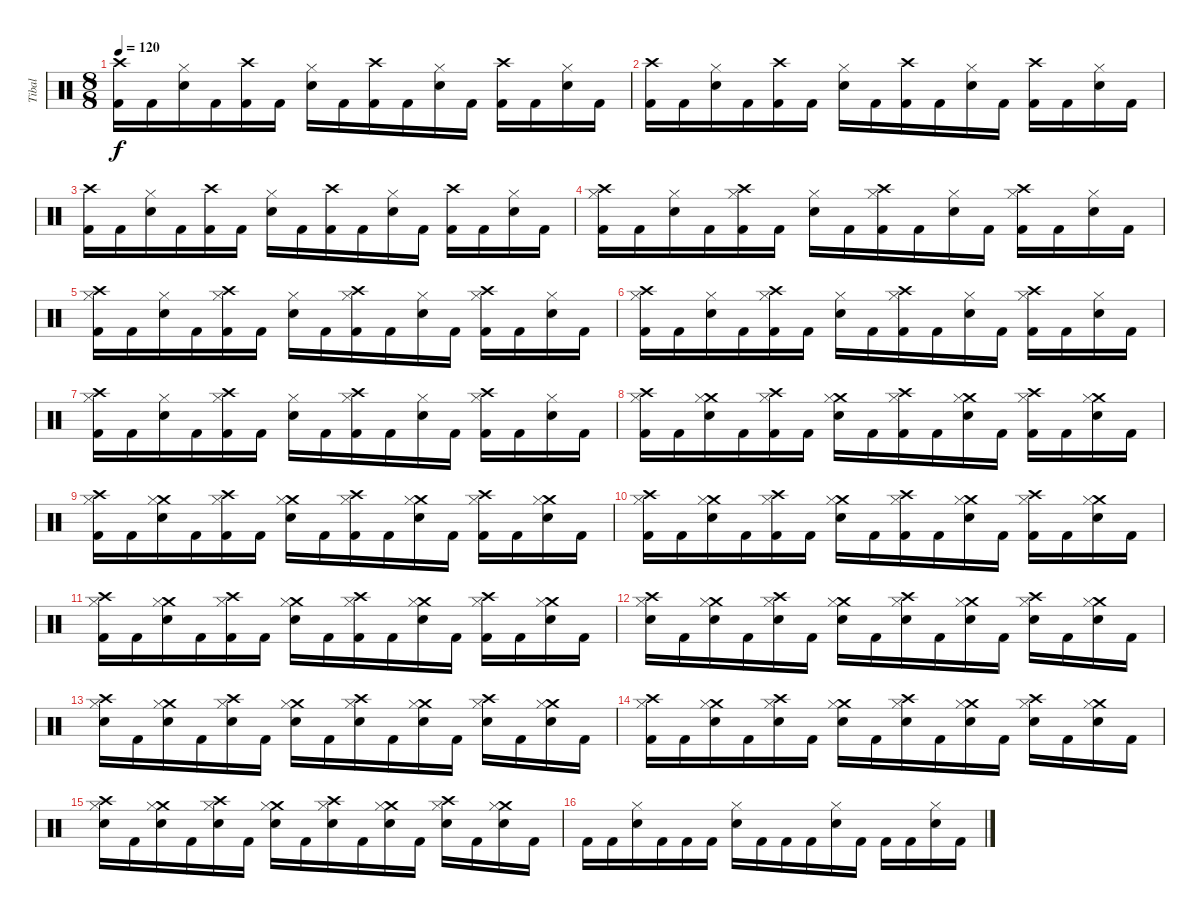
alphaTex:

\track ("Tibal" "Tibal") {instrument percussion}
\staff {score}
\articulation defaults
\ts (8 8)
\tempo 120
\clef neutral
\ks c
("Crash high (hit)" "Kick (hit) 2").16{dy f} "Kick (hit) 2".16 ("Snare (hit) 2" "Hi-Hat (closed)").16 "Kick (hit) 2".16 ("Crash high (hit)" "Kick (hit) 2").16 "Kick (hit) 2".16 ("Snare (hit) 2" "Hi-Hat (closed)").16 "Kick (hit) 2".16 ("Crash high (hit)" "Kick (hit) 2").16 "Kick (hit) 2".16 ("Snare (hit) 2" "Hi-Hat (closed)").16 "Kick (hit) 2".16 ("Crash high (hit)" "Kick (hit) 2").16 "Kick (hit) 2".16 ("Snare (hit) 2" "Hi-Hat (closed)").16 "Kick (hit) 2".16 |
("Crash high (hit)" "Kick (hit) 2").16 "Kick (hit) 2".16 ("Snare (hit) 2" "Hi-Hat (closed)").16 "Kick (hit) 2".16 ("Crash high (hit)" "Kick (hit) 2").16 "Kick (hit) 2".16 ("Snare (hit) 2" "Hi-Hat (closed)").16 "Kick (hit) 2".16 ("Crash high (hit)" "Kick (hit) 2").16 "Kick (hit) 2".16 ("Snare (hit) 2" "Hi-Hat (closed)").16 "Kick (hit) 2".16 ("Crash high (hit)" "Kick (hit) 2").16 "Kick (hit) 2".16 ("Snare (hit) 2" "Hi-Hat (closed)").16 "Kick (hit) 2".16 |
("Crash high (hit)" "Kick (hit) 2").16 "Kick (hit) 2".16 ("Snare (hit) 2" "Hi-Hat (closed)").16 "Kick (hit) 2".16 ("Crash high (hit)" "Kick (hit) 2").16 "Kick (hit) 2".16 ("Snare (hit) 2" "Hi-Hat (closed)").16 "Kick (hit) 2".16 ("Crash high (hit)" "Kick (hit) 2").16 "Kick (hit) 2".16 ("Snare (hit) 2" "Hi-Hat (closed)").16 "Kick (hit) 2".16 ("Crash high (hit)" "Kick (hit) 2").16 "Kick (hit) 2".16 ("Snare (hit) 2" "Hi-Hat (closed)").16 "Kick (hit) 2".16 |
("Crash high (hit)" "Kick (hit) 2" "Hi-Hat (closed)").16 "Kick (hit) 2".16 ("Snare (hit) 2" "Hi-Hat (closed)").16 "Kick (hit) 2".16 ("Crash high (hit)" "Kick (hit) 2" "Hi-Hat (closed)").16 "Kick (hit) 2".16 ("Snare (hit) 2" "Hi-Hat (closed)").16 "Kick (hit) 2".16 ("Crash high (hit)" "Kick (hit) 2" "Hi-Hat (closed)").16 "Kick (hit) 2".16 ("Snare (hit) 2" "Hi-Hat (closed)").16 "Kick (hit) 2".16 ("Crash high (hit)" "Kick (hit) 2" "Hi-Hat (closed)").16 "Kick (hit) 2".16 ("Snare (hit) 2" "Hi-Hat (closed)").16 "Kick (hit) 2".16 |
("Crash high (hit)" "Kick (hit) 2" "Hi-Hat (closed)").16 "Kick (hit) 2".16 ("Snare (hit) 2" "Hi-Hat (closed)").16 "Kick (hit) 2".16 ("Crash high (hit)" "Kick (hit) 2" "Hi-Hat (closed)").16 "Kick (hit) 2".16 ("Snare (hit) 2" "Hi-Hat (closed)").16 "Kick (hit) 2".16 ("Crash high (hit)" "Kick (hit) 2" "Hi-Hat (closed)").16 "Kick (hit) 2".16 ("Snare (hit) 2" "Hi-Hat (closed)").16 "Kick (hit) 2".16 ("Crash high (hit)" "Kick (hit) 2" "Hi-Hat (closed)").16 "Kick (hit) 2".16 ("Snare (hit) 2" "Hi-Hat (closed)").16 "Kick (hit) 2".16 |
("Crash high (hit)" "Kick (hit) 2" "Hi-Hat (closed)").16 "Kick (hit) 2".16 ("Snare (hit) 2" "Hi-Hat (closed)").16 "Kick (hit) 2".16 ("Crash high (hit)" "Kick (hit) 2" "Hi-Hat (closed)").16 "Kick (hit) 2".16 ("Snare (hit) 2" "Hi-Hat (closed)").16 "Kick (hit) 2".16 ("Crash high (hit)" "Kick (hit) 2" "Hi-Hat (closed)").16 "Kick (hit) 2".16 ("Snare (hit) 2" "Hi-Hat (closed)").16 "Kick (hit) 2".16 ("Crash high (hit)" "Kick (hit) 2" "Hi-Hat (closed)").16 "Kick (hit) 2".16 ("Snare (hit) 2" "Hi-Hat (closed)").16 "Kick (hit) 2".16 |
("Crash high (hit)" "Kick (hit) 2" "Hi-Hat (closed)").16 "Kick (hit) 2".16 ("Snare (hit) 2" "Hi-Hat (closed)").16 "Kick (hit) 2".16 ("Crash high (hit)" "Kick (hit) 2" "Hi-Hat (closed)").16 "Kick (hit) 2".16 ("Snare (hit) 2" "Hi-Hat (closed)").16 "Kick (hit) 2".16 ("Crash high (hit)" "Kick (hit) 2" "Hi-Hat (closed)").16 "Kick (hit) 2".16 ("Snare (hit) 2" "Hi-Hat (closed)").16 "Kick (hit) 2".16 ("Crash high (hit)" "Kick (hit) 2" "Hi-Hat (closed)").16 "Kick (hit) 2".16 ("Snare (hit) 2" "Hi-Hat (closed)").16 "Kick (hit) 2".16 |
("Crash high (hit)" "Kick (hit) 2" "Hi-Hat (closed)").16 "Kick (hit) 2".16 ("Crash medium (hit)" "Snare (hit) 2" "Hi-Hat (closed)").16 "Kick (hit) 2".16 ("Crash high (hit)" "Kick (hit) 2" "Hi-Hat (closed)").16 "Kick (hit) 2".16 ("Crash medium (hit)" "Snare (hit) 2" "Hi-Hat (closed)").16 "Kick (hit) 2".16 ("Crash high (hit)" "Kick (hit) 2" "Hi-Hat (closed)").16 "Kick (hit) 2".16 ("Crash medium (hit)" "Snare (hit) 2" "Hi-Hat (closed)").16 "Kick (hit) 2".16 ("Crash high (hit)" "Kick (hit) 2" "Hi-Hat (closed)").16 "Kick (hit) 2".16 ("Crash medium (hit)" "Snare (hit) 2" "Hi-Hat (closed)").16 "Kick (hit) 2".16 |
("Crash high (hit)" "Kick (hit) 2" "Hi-Hat (closed)").16 "Kick (hit) 2".16 ("Crash medium (hit)" "Snare (hit) 2" "Hi-Hat (closed)").16 "Kick (hit) 2".16 ("Crash high (hit)" "Kick (hit) 2" "Hi-Hat (closed)").16 "Kick (hit) 2".16 ("Crash medium (hit)" "Snare (hit) 2" "Hi-Hat (closed)").16 "Kick (hit) 2".16 ("Crash high (hit)" "Kick (hit) 2" "Hi-Hat (closed)").16 "Kick (hit) 2".16 ("Crash medium (hit)" "Snare (hit) 2" "Hi-Hat (closed)").16 "Kick (hit) 2".16 ("Crash high (hit)" "Kick (hit) 2" "Hi-Hat (closed)").16 "Kick (hit) 2".16 ("Crash medium (hit)" "Snare (hit) 2" "Hi-Hat (closed)").16 "Kick (hit) 2".16 |
("Crash high (hit)" "Kick (hit) 2" "Hi-Hat (closed)").16 "Kick (hit) 2".16 ("Crash medium (hit)" "Snare (hit) 2" "Hi-Hat (closed)").16 "Kick (hit) 2".16 ("Crash high (hit)" "Kick (hit) 2" "Hi-Hat (closed)").16 "Kick (hit) 2".16 ("Crash medium (hit)" "Snare (hit) 2" "Hi-Hat (closed)").16 "Kick (hit) 2".16 ("Crash high (hit)" "Kick (hit) 2" "Hi-Hat (closed)").16 "Kick (hit) 2".16 ("Crash medium (hit)" "Snare (hit) 2" "Hi-Hat (closed)").16 "Kick (hit) 2".16 ("Crash high (hit)" "Kick (hit) 2" "Hi-Hat (closed)").16 "Kick (hit) 2".16 ("Crash medium (hit)" "Snare (hit) 2" "Hi-Hat (closed)").16 "Kick (hit) 2".16 |
("Crash high (hit)" "Kick (hit) 2" "Hi-Hat (closed)").16 "Kick (hit) 2".16 ("Crash medium (hit)" "Snare (hit) 2" "Hi-Hat (closed)").16 "Kick (hit) 2".16 ("Crash high (hit)" "Kick (hit) 2" "Hi-Hat (closed)").16 "Kick (hit) 2".16 ("Crash medium (hit)" "Snare (hit) 2" "Hi-Hat (closed)").16 "Kick (hit) 2".16 ("Crash high (hit)" "Kick (hit) 2" "Hi-Hat (closed)").16 "Kick (hit) 2".16 ("Crash medium (hit)" "Snare (hit) 2" "Hi-Hat (closed)").16 "Kick (hit) 2".16 ("Crash high (hit)" "Kick (hit) 2" "Hi-Hat (closed)").16 "Kick (hit) 2".16 ("Crash medium (hit)" "Snare (hit) 2" "Hi-Hat (closed)").16 "Kick (hit) 2".16 |
("Crash high (hit)" "Snare (hit) 2" "Hi-Hat (closed)").16 "Kick (hit) 2".16 ("Crash medium (hit)" "Snare (hit) 2" "Hi-Hat (closed)").16 "Kick (hit) 2".16 ("Crash high (hit)" "Snare (hit) 2" "Hi-Hat (closed)").16 "Kick (hit) 2".16 ("Crash medium (hit)" "Snare (hit) 2" "Hi-Hat (closed)").16 "Kick (hit) 2".16 ("Crash high (hit)" "Snare (hit) 2" "Hi-Hat (closed)").16 "Kick (hit) 2".16 ("Crash medium (hit)" "Snare (hit) 2" "Hi-Hat (closed)").16 "Kick (hit) 2".16 ("Crash high (hit)" "Snare (hit) 2" "Hi-Hat (closed)").16 "Kick (hit) 2".16 ("Crash medium (hit)" "Snare (hit) 2" "Hi-Hat (closed)").16 "Kick (hit) 2".16 |
("Crash high (hit)" "Snare (hit) 2" "Hi-Hat (closed)").16 "Kick (hit) 2".16 ("Crash medium (hit)" "Snare (hit) 2" "Hi-Hat (closed)").16 "Kick (hit) 2".16 ("Crash high (hit)" "Snare (hit) 2" "Hi-Hat (closed)").16 "Kick (hit) 2".16 ("Crash medium (hit)" "Snare (hit) 2" "Hi-Hat (closed)").16 "Kick (hit) 2".16 ("Crash high (hit)" "Snare (hit) 2" "Hi-Hat (closed)").16 "Kick (hit) 2".16 ("Crash medium (hit)" "Snare (hit) 2" "Hi-Hat (closed)").16 "Kick (hit) 2".16 ("Crash high (hit)" "Snare (hit) 2" "Hi-Hat (closed)").16 "Kick (hit) 2".16 ("Crash medium (hit)" "Snare (hit) 2" "Hi-Hat (closed)").16 "Kick (hit) 2".16 |
("Crash high (hit)" "Kick (hit) 2" "Hi-Hat (closed)").16 "Kick (hit) 2".16 ("Crash medium (hit)" "Snare (hit) 2" "Hi-Hat (closed)").16 "Kick (hit) 2".16 ("Crash high (hit)" "Snare (hit) 2" "Hi-Hat (closed)").16 "Kick (hit) 2".16 ("Crash medium (hit)" "Snare (hit) 2" "Hi-Hat (closed)").16 "Kick (hit) 2".16 ("Crash high (hit)" "Snare (hit) 2" "Hi-Hat (closed)").16 "Kick (hit) 2".16 ("Crash medium (hit)" "Snare (hit) 2" "Hi-Hat (closed)").16 "Kick (hit) 2".16 ("Crash high (hit)" "Snare (hit) 2" "Hi-Hat (closed)").16 "Kick (hit) 2".16 ("Crash medium (hit)" "Snare (hit) 2" "Hi-Hat (closed)").16 "Kick (hit) 2".16 |
("Crash high (hit)" "Snare (hit) 2" "Hi-Hat (closed)").16 "Kick (hit) 2".16 ("Crash medium (hit)" "Snare (hit) 2" "Hi-Hat (closed)").16 "Kick (hit) 2".16 ("Crash high (hit)" "Snare (hit) 2" "Hi-Hat (closed)").16 "Kick (hit) 2".16 ("Crash medium (hit)" "Snare (hit) 2" "Hi-Hat (closed)").16 "Kick (hit) 2".16 ("Crash high (hit)" "Snare (hit) 2" "Hi-Hat (closed)").16 "Kick (hit) 2".16 ("Crash medium (hit)" "Snare (hit) 2" "Hi-Hat (closed)").16 "Kick (hit) 2".16 ("Crash high (hit)" "Snare (hit) 2" "Hi-Hat (closed)").16 "Kick (hit) 2".16 ("Crash medium (hit)" "Snare (hit) 2" "Hi-Hat (closed)").16 "Kick (hit) 2".16 |
"Kick (hit) 2".16 "Kick (hit) 2".16 ("Snare (hit) 2" "Hi-Hat (closed)").16 "Kick (hit) 2".16 "Kick (hit) 2".16 "Kick (hit) 2".16 ("Snare (hit) 2" "Hi-Hat (closed)").16 "Kick (hit) 2".16 "Kick (hit) 2".16 "Kick (hit) 2".16 ("Snare (hit) 2" "Hi-Hat (closed)").16 "Kick (hit) 2".16 "Kick (hit) 2".16 "Kick (hit) 2".16 ("Snare (hit) 2" "Hi-Hat (closed)").16 "Kick (hit) 2".16
